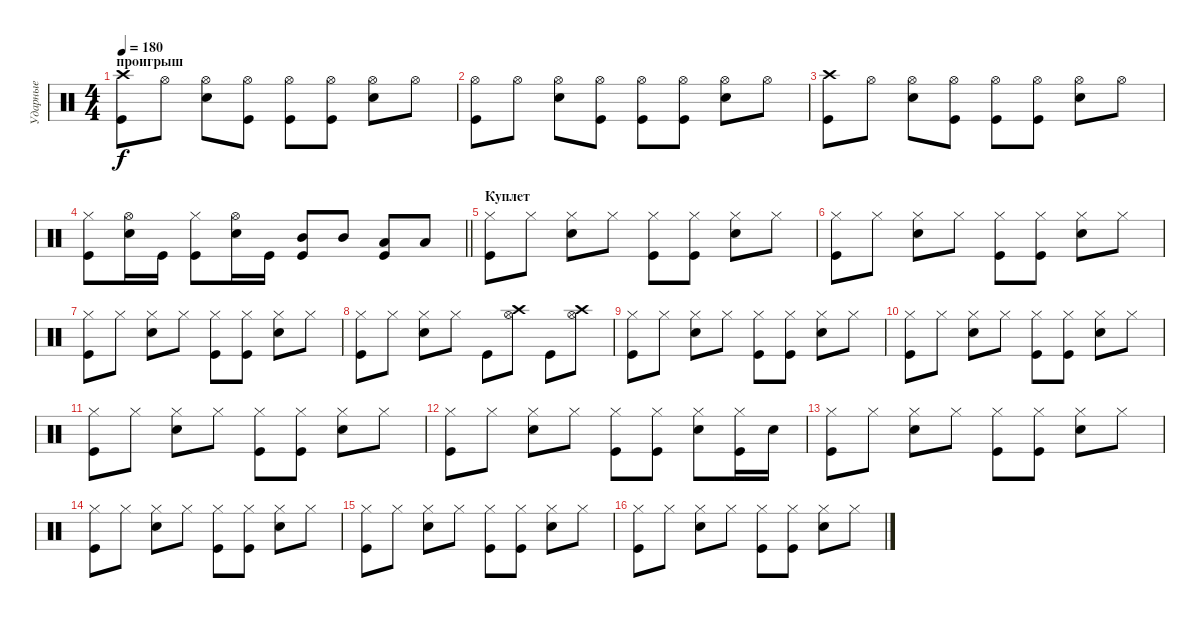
\track ("Ударные" "Ударные") {instrument percussion}
\staff {score}
\articulation defaults
\ts (4 4)
\section ("" "проигрыш")
\tempo 180
\clef neutral
\ks c
("Crash high (hit)" "Kick (hit)").8{dy f} "Hi-Hat (open)".8 ("Hi-Hat (open)" "Snare (hit) 2").8 ("Hi-Hat (open)" "Kick (hit)").8 ("Hi-Hat (open)" "Kick (hit)").8 ("Hi-Hat (open)" "Kick (hit)").8 ("Hi-Hat (open)" "Snare (hit) 2").8 "Hi-Hat (open)".8 |
("Hi-Hat (open)" "Kick (hit)").8 "Hi-Hat (open)".8 ("Hi-Hat (open)" "Snare (hit) 2").8 ("Hi-Hat (open)" "Kick (hit)").8 ("Hi-Hat (open)" "Kick (hit)").8 ("Hi-Hat (open)" "Kick (hit)").8 ("Hi-Hat (open)" "Snare (hit) 2").8 "Hi-Hat (open)".8 |
("Crash high (hit)" "Kick (hit)").8 "Hi-Hat (open)".8 ("Hi-Hat (open)" "Snare (hit) 2").8 ("Hi-Hat (open)" "Kick (hit)").8 ("Hi-Hat (open)" "Kick (hit)").8 ("Hi-Hat (open)" "Kick (hit)").8 ("Hi-Hat (open)" "Snare (hit) 2").8 "Hi-Hat (open)".8 |
\barLineRight lightlight
("Kick (hit)" "Hi-Hat (closed)").8 ("Snare (hit) 2" "Hi-Hat (open)").16 "Kick (hit)".16 ("Hi-Hat (closed)" "Kick (hit)").8 ("Snare (hit) 2" "Hi-Hat (open)").16 "Kick (hit)".16 ("Mid Tom (hit)" "Kick (hit)").8 "Mid Tom (hit)".8 ("Low Tom (hit)" "Kick (hit)").8 "Low Tom (hit)".8 |
\section ("" "Куплет")
("Hi-Hat (closed)" "Kick (hit)").8 "Hi-Hat (closed)".8 ("Hi-Hat (closed)" "Snare (hit) 2").8 "Hi-Hat (closed)".8 ("Hi-Hat (closed)" "Kick (hit)").8 ("Hi-Hat (closed)" "Kick (hit)").8 ("Hi-Hat (closed)" "Snare (hit) 2").8 "Hi-Hat (closed)".8 |
("Hi-Hat (closed)" "Kick (hit)").8 "Hi-Hat (closed)".8 ("Hi-Hat (closed)" "Snare (hit) 2").8 "Hi-Hat (closed)".8 ("Hi-Hat (closed)" "Kick (hit)").8 ("Hi-Hat (closed)" "Kick (hit)").8 ("Hi-Hat (closed)" "Snare (hit) 2").8 "Hi-Hat (closed)".8 |
("Hi-Hat (closed)" "Kick (hit)").8 "Hi-Hat (closed)".8 ("Hi-Hat (closed)" "Snare (hit) 2").8 "Hi-Hat (closed)".8 ("Hi-Hat (closed)" "Kick (hit)").8 ("Hi-Hat (closed)" "Kick (hit)").8 ("Hi-Hat (closed)" "Snare (hit) 2").8 "Hi-Hat (closed)".8 |
("Hi-Hat (closed)" "Kick (hit)").8 "Hi-Hat (closed)".8 ("Hi-Hat (closed)" "Snare (hit) 2").8 "Hi-Hat (closed)".8 "Kick (hit)".8 ("Hi-Hat (open)" "Crash high (hit)").8 "Kick (hit)".8 ("Hi-Hat (open)" "Crash high (hit)").8 |
("Hi-Hat (closed)" "Kick (hit)").8 "Hi-Hat (closed)".8 ("Hi-Hat (closed)" "Snare (hit) 2").8 "Hi-Hat (closed)".8 ("Hi-Hat (closed)" "Kick (hit)").8 ("Hi-Hat (closed)" "Kick (hit)").8 ("Hi-Hat (closed)" "Snare (hit) 2").8 "Hi-Hat (closed)".8 |
("Hi-Hat (closed)" "Kick (hit)").8 "Hi-Hat (closed)".8 ("Hi-Hat (closed)" "Snare (hit) 2").8 "Hi-Hat (closed)".8 ("Hi-Hat (closed)" "Kick (hit)").8 ("Hi-Hat (closed)" "Kick (hit)").8 ("Hi-Hat (closed)" "Snare (hit) 2").8 "Hi-Hat (closed)".8 |
("Hi-Hat (closed)" "Kick (hit)").8 "Hi-Hat (closed)".8 ("Hi-Hat (closed)" "Snare (hit) 2").8 "Hi-Hat (closed)".8 ("Hi-Hat (closed)" "Kick (hit)").8 ("Hi-Hat (closed)" "Kick (hit)").8 ("Hi-Hat (closed)" "Snare (hit) 2").8 "Hi-Hat (closed)".8 |
("Hi-Hat (closed)" "Kick (hit)").8 "Hi-Hat (closed)".8 ("Hi-Hat (closed)" "Snare (hit) 2").8 "Hi-Hat (closed)".8 ("Hi-Hat (closed)" "Kick (hit)").8 ("Hi-Hat (closed)" "Kick (hit)").8 ("Hi-Hat (closed)" "Snare (hit) 2").8 ("Hi-Hat (closed)" "Kick (hit)").16 "Snare (hit) 2".16 |
("Hi-Hat (closed)" "Kick (hit)").8 "Hi-Hat (closed)".8 ("Hi-Hat (closed)" "Snare (hit) 2").8 "Hi-Hat (closed)".8 ("Hi-Hat (closed)" "Kick (hit)").8 ("Hi-Hat (closed)" "Kick (hit)").8 ("Hi-Hat (closed)" "Snare (hit) 2").8 "Hi-Hat (closed)".8 |
("Hi-Hat (closed)" "Kick (hit)").8 "Hi-Hat (closed)".8 ("Hi-Hat (closed)" "Snare (hit) 2").8 "Hi-Hat (closed)".8 ("Hi-Hat (closed)" "Kick (hit)").8 ("Hi-Hat (closed)" "Kick (hit)").8 ("Hi-Hat (closed)" "Snare (hit) 2").8 "Hi-Hat (closed)".8 |
("Hi-Hat (closed)" "Kick (hit)").8 "Hi-Hat (closed)".8 ("Hi-Hat (closed)" "Snare (hit) 2").8 "Hi-Hat (closed)".8 ("Hi-Hat (closed)" "Kick (hit)").8 ("Hi-Hat (closed)" "Kick (hit)").8 ("Hi-Hat (closed)" "Snare (hit) 2").8 "Hi-Hat (closed)".8 |
("Hi-Hat (closed)" "Kick (hit)").8 "Hi-Hat (closed)".8 ("Hi-Hat (closed)" "Snare (hit) 2").8 "Hi-Hat (closed)".8 ("Hi-Hat (closed)" "Kick (hit)").8 ("Hi-Hat (closed)" "Kick (hit)").8 ("Hi-Hat (closed)" "Snare (hit) 2").8 "Hi-Hat (closed)".8
